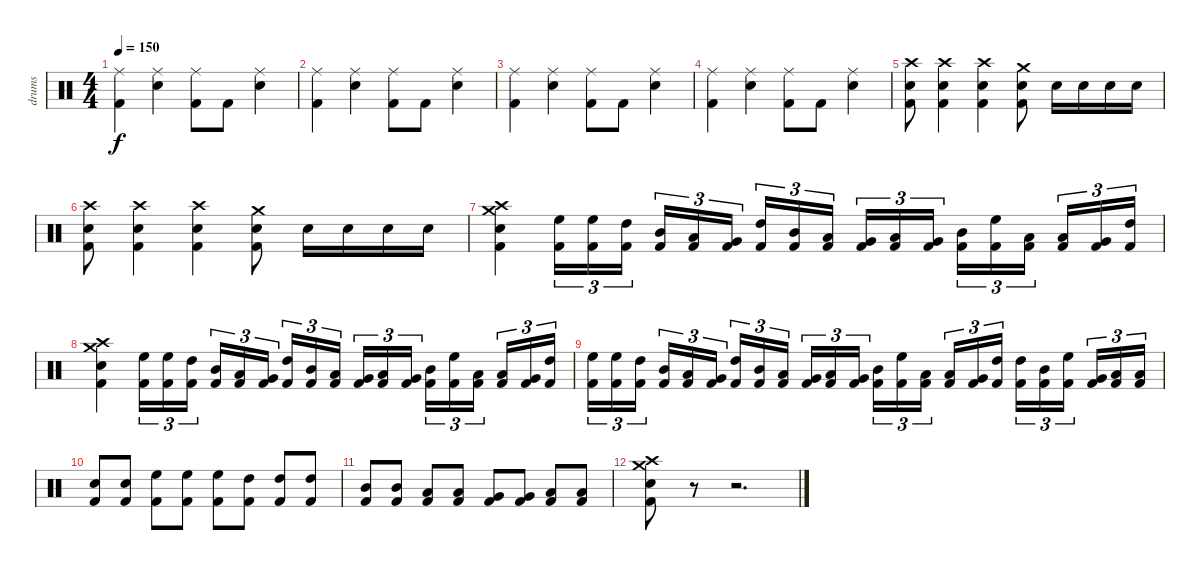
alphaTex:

\track ("drums" "drums") {instrument percussion}
\staff {score}
\articulation defaults
\ts (4 4)
\tempo 150
\clef neutral
\ks c
("Ride (middle)" "Kick (hit) 2").4{dy f} ("Ride (middle)" "Snare (hit) 2").4 ("Ride (middle)" "Kick (hit) 2").8 "Kick (hit) 2".8 ("Ride (middle)" "Snare (hit) 2").4 |
("Ride (middle)" "Kick (hit) 2").4 ("Ride (middle)" "Snare (hit) 2").4 ("Ride (middle)" "Kick (hit) 2").8 "Kick (hit) 2".8 ("Ride (middle)" "Snare (hit) 2").4 |
("Ride (middle)" "Kick (hit) 2").4 ("Ride (middle)" "Snare (hit) 2").4 ("Ride (middle)" "Kick (hit) 2").8 "Kick (hit) 2".8 ("Ride (middle)" "Snare (hit) 2").4 |
("Ride (middle)" "Kick (hit) 2").4 ("Ride (middle)" "Snare (hit) 2").4 ("Ride (middle)" "Kick (hit) 2").8 "Kick (hit) 2".8 ("Ride (middle)" "Snare (hit) 2").4 |
("Crash high (hit)" "Snare (hit) 2" "Kick (hit) 2").8 ("Crash high (hit)" "Snare (hit) 2" "Kick (hit) 2").4 ("Crash high (hit)" "Snare (hit) 2" "Kick (hit) 2").4 ("Crash medium (hit)" "Snare (hit) 2" "Kick (hit) 2").8 "Snare (hit) 2".16 "Snare (hit) 2".16 "Snare (hit) 2".16 "Snare (hit) 2".16 |
("Crash high (hit)" "Snare (hit) 2" "Kick (hit) 2").8 ("Crash high (hit)" "Snare (hit) 2" "Kick (hit) 2").4 ("Crash high (hit)" "Snare (hit) 2" "Kick (hit) 2").4 ("Crash medium (hit)" "Snare (hit) 2" "Kick (hit) 2").8 "Snare (hit) 2".16 "Snare (hit) 2".16 "Snare (hit) 2".16 "Snare (hit) 2".16 |
("Crash medium (hit)" "Crash high (hit)" "Snare (hit) 2" "Kick (hit) 2").4 ("High Floor Tom (hit)" "Kick (hit) 2").16{tu (3 2)} ("High Floor Tom (hit)" "Kick (hit) 2").16{tu (3 2)} ("High Tom (hit)" "Kick (hit) 2").16{tu (3 2) beam splitsecondary} ("Mid Tom (hit)" "Kick (hit) 2").16{tu (3 2)} ("Low Tom (hit)" "Kick (hit) 2").16{tu (3 2)} ("Very Low Tom (hit)" "Kick (hit) 2").16{tu (3 2)} ("High Tom (hit)" "Kick (hit) 2").16{tu (3 2)} ("Mid Tom (hit)" "Kick (hit) 2").16{tu (3 2)} ("Low Tom (hit)" "Kick (hit) 2").16{tu (3 2) beam splitsecondary} ("Very Low Tom (hit)" "Kick (hit) 2").16{tu (3 2)} ("Low Floor Tom (hit)" "Kick (hit) 2").16{tu (3 2)} ("Very Low Tom (hit)" "Kick (hit) 2").16{tu (3 2)} ("Mid Tom (hit)" "Kick (hit) 2").16{tu (3 2)} ("High Floor Tom (hit)" "Kick (hit) 2").16{tu (3 2)} ("Low Floor Tom (hit)" "Kick (hit) 2").16{tu (3 2) beam splitsecondary} ("Low Tom (hit)" "Kick (hit) 2").16{tu (3 2)} ("Very Low Tom (hit)" "Kick (hit) 2").16{tu (3 2)} ("High Tom (hit)" "Kick (hit) 2").16{tu (3 2)} |
("Crash medium (hit)" "Crash high (hit)" "Snare (hit) 2" "Kick (hit) 2").4 ("High Floor Tom (hit)" "Kick (hit) 2").16{tu (3 2)} ("High Floor Tom (hit)" "Kick (hit) 2").16{tu (3 2)} ("High Tom (hit)" "Kick (hit) 2").16{tu (3 2) beam splitsecondary} ("Mid Tom (hit)" "Kick (hit) 2").16{tu (3 2)} ("Low Tom (hit)" "Kick (hit) 2").16{tu (3 2)} ("Very Low Tom (hit)" "Kick (hit) 2").16{tu (3 2)} ("High Tom (hit)" "Kick (hit) 2").16{tu (3 2)} ("Mid Tom (hit)" "Kick (hit) 2").16{tu (3 2)} ("Low Tom (hit)" "Kick (hit) 2").16{tu (3 2) beam splitsecondary} ("Very Low Tom (hit)" "Kick (hit) 2").16{tu (3 2)} ("Low Floor Tom (hit)" "Kick (hit) 2").16{tu (3 2)} ("Very Low Tom (hit)" "Kick (hit) 2").16{tu (3 2)} ("Mid Tom (hit)" "Kick (hit) 2").16{tu (3 2)} ("High Floor Tom (hit)" "Kick (hit) 2").16{tu (3 2)} ("Low Floor Tom (hit)" "Kick (hit) 2").16{tu (3 2) beam splitsecondary} ("Low Tom (hit)" "Kick (hit) 2").16{tu (3 2)} ("Very Low Tom (hit)" "Kick (hit) 2").16{tu (3 2)} ("High Tom (hit)" "Kick (hit) 2").16{tu (3 2)} |
("High Floor Tom (hit)" "Kick (hit) 2").16{tu (3 2)} ("High Floor Tom (hit)" "Kick (hit) 2").16{tu (3 2)} ("High Tom (hit)" "Kick (hit) 2").16{tu (3 2) beam splitsecondary} ("Mid Tom (hit)" "Kick (hit) 2").16{tu (3 2)} ("Low Tom (hit)" "Kick (hit) 2").16{tu (3 2)} ("Very Low Tom (hit)" "Kick (hit) 2").16{tu (3 2)} ("High Tom (hit)" "Kick (hit) 2").16{tu (3 2)} ("Mid Tom (hit)" "Kick (hit) 2").16{tu (3 2)} ("Low Tom (hit)" "Kick (hit) 2").16{tu (3 2) beam splitsecondary} ("Very Low Tom (hit)" "Kick (hit) 2").16{tu (3 2)} ("Low Floor Tom (hit)" "Kick (hit) 2").16{tu (3 2)} ("Very Low Tom (hit)" "Kick (hit) 2").16{tu (3 2)} ("Mid Tom (hit)" "Kick (hit) 2").16{tu (3 2)} ("High Floor Tom (hit)" "Kick (hit) 2").16{tu (3 2)} ("Low Floor Tom (hit)" "Kick (hit) 2").16{tu (3 2) beam splitsecondary} ("Low Tom (hit)" "Kick (hit) 2").16{tu (3 2)} ("Very Low Tom (hit)" "Kick (hit) 2").16{tu (3 2)} ("High Tom (hit)" "Kick (hit) 2").16{tu (3 2)} ("High Tom (hit)" "Kick (hit) 2").16{tu (3 2)} ("Mid Tom (hit)" "Kick (hit) 2").16{tu (3 2)} ("High Floor Tom (hit)" "Kick (hit) 2").16{tu (3 2) beam splitsecondary} ("Very Low Tom (hit)" "Kick (hit) 2").16{tu (3 2)} ("Low Floor Tom (hit)" "Kick (hit) 2").16{tu (3 2)} ("Low Tom (hit)" "Kick (hit) 2").16{tu (3 2)} |
("Snare (hit) 2" "Kick (hit) 2").8 ("Snare (hit) 2" "Kick (hit) 2").8 ("High Floor Tom (hit)" "Kick (hit) 2").8 ("High Floor Tom (hit)" "Kick (hit) 2").8 ("High Floor Tom (hit)" "Kick (hit) 2").8 ("High Tom (hit)" "Kick (hit) 2").8 ("High Tom (hit)" "Kick (hit) 2").8 ("High Tom (hit)" "Kick (hit) 2").8 |
("Mid Tom (hit)" "Kick (hit) 2").8 ("Mid Tom (hit)" "Kick (hit) 2").8 ("Low Tom (hit)" "Kick (hit) 2").8 ("Low Tom (hit)" "Kick (hit) 2").8 ("Very Low Tom (hit)" "Kick (hit) 2").8 ("Very Low Tom (hit)" "Kick (hit) 2").8 ("Low Floor Tom (hit)" "Kick (hit) 2").8 ("Low Floor Tom (hit)" "Kick (hit) 2").8 |
("Crash medium (hit)" "Crash high (hit)" "Snare (hit) 2" "Kick (hit) 2").8 r.8 r.2{d}
